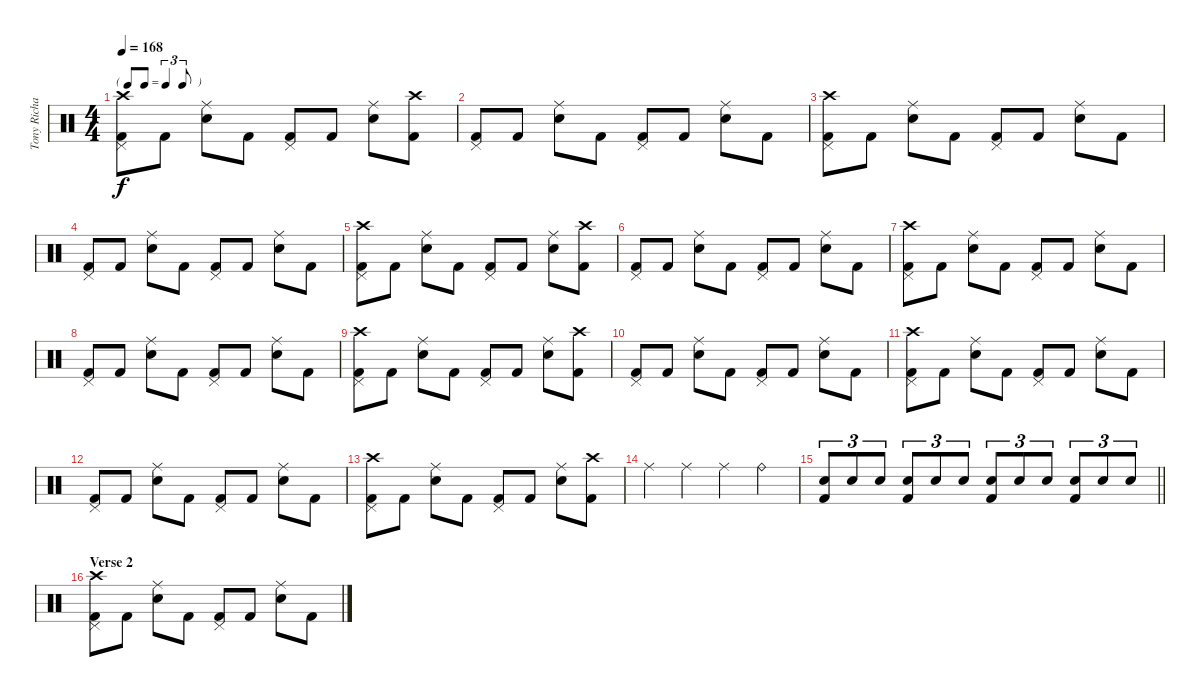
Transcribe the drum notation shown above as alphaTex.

\track ("Tony Richards (drums)" "Tony Richa") {instrument percussion}
\staff {score}
\articulation defaults
\ts (4 4)
\tf triplet8th
\tempo 168
\clef neutral
\ks c
("Crash high (hit)" "Pedal Hi-Hat (hit)" "Kick (hit) 2").8{dy f} "Kick (hit) 2".8 ("Ride (middle)" "Snare (hit) 2").8 "Kick (hit) 2".8 ("Pedal Hi-Hat (hit)" "Kick (hit) 2").8 "Kick (hit) 2".8 ("Ride (middle)" "Snare (hit) 2").8 ("Crash high (hit)" "Kick (hit) 2").8 |
("Pedal Hi-Hat (hit)" "Kick (hit) 2").8 "Kick (hit) 2".8 ("Ride (middle)" "Snare (hit) 2").8 "Kick (hit) 2".8 ("Pedal Hi-Hat (hit)" "Kick (hit) 2").8 "Kick (hit) 2".8 ("Ride (middle)" "Snare (hit) 2").8 "Kick (hit) 2".8 |
("Crash high (hit)" "Pedal Hi-Hat (hit)" "Kick (hit) 2").8 "Kick (hit) 2".8 ("Ride (middle)" "Snare (hit) 2").8 "Kick (hit) 2".8 ("Pedal Hi-Hat (hit)" "Kick (hit) 2").8 "Kick (hit) 2".8 ("Ride (middle)" "Snare (hit) 2").8 "Kick (hit) 2".8 |
("Pedal Hi-Hat (hit)" "Kick (hit) 2").8 "Kick (hit) 2".8 ("Ride (middle)" "Snare (hit) 2").8 "Kick (hit) 2".8 ("Pedal Hi-Hat (hit)" "Kick (hit) 2").8 "Kick (hit) 2".8 ("Ride (middle)" "Snare (hit) 2").8 "Kick (hit) 2".8 |
("Crash high (hit)" "Pedal Hi-Hat (hit)" "Kick (hit) 2").8 "Kick (hit) 2".8 ("Ride (middle)" "Snare (hit) 2").8 "Kick (hit) 2".8 ("Pedal Hi-Hat (hit)" "Kick (hit) 2").8 "Kick (hit) 2".8 ("Ride (middle)" "Snare (hit) 2").8 ("Crash high (hit)" "Kick (hit) 2").8 |
("Pedal Hi-Hat (hit)" "Kick (hit) 2").8 "Kick (hit) 2".8 ("Ride (middle)" "Snare (hit) 2").8 "Kick (hit) 2".8 ("Pedal Hi-Hat (hit)" "Kick (hit) 2").8 "Kick (hit) 2".8 ("Ride (middle)" "Snare (hit) 2").8 "Kick (hit) 2".8 |
("Crash high (hit)" "Pedal Hi-Hat (hit)" "Kick (hit) 2").8 "Kick (hit) 2".8 ("Ride (middle)" "Snare (hit) 2").8 "Kick (hit) 2".8 ("Pedal Hi-Hat (hit)" "Kick (hit) 2").8 "Kick (hit) 2".8 ("Ride (middle)" "Snare (hit) 2").8 "Kick (hit) 2".8 |
("Pedal Hi-Hat (hit)" "Kick (hit) 2").8 "Kick (hit) 2".8 ("Ride (middle)" "Snare (hit) 2").8 "Kick (hit) 2".8 ("Pedal Hi-Hat (hit)" "Kick (hit) 2").8 "Kick (hit) 2".8 ("Ride (middle)" "Snare (hit) 2").8 "Kick (hit) 2".8 |
("Crash high (hit)" "Pedal Hi-Hat (hit)" "Kick (hit) 2").8 "Kick (hit) 2".8 ("Ride (middle)" "Snare (hit) 2").8 "Kick (hit) 2".8 ("Pedal Hi-Hat (hit)" "Kick (hit) 2").8 "Kick (hit) 2".8 ("Ride (middle)" "Snare (hit) 2").8 ("Crash high (hit)" "Kick (hit) 2").8 |
("Pedal Hi-Hat (hit)" "Kick (hit) 2").8 "Kick (hit) 2".8 ("Ride (middle)" "Snare (hit) 2").8 "Kick (hit) 2".8 ("Pedal Hi-Hat (hit)" "Kick (hit) 2").8 "Kick (hit) 2".8 ("Ride (middle)" "Snare (hit) 2").8 "Kick (hit) 2".8 |
("Crash high (hit)" "Pedal Hi-Hat (hit)" "Kick (hit) 2").8 "Kick (hit) 2".8 ("Ride (middle)" "Snare (hit) 2").8 "Kick (hit) 2".8 ("Pedal Hi-Hat (hit)" "Kick (hit) 2").8 "Kick (hit) 2".8 ("Ride (middle)" "Snare (hit) 2").8 "Kick (hit) 2".8 |
("Pedal Hi-Hat (hit)" "Kick (hit) 2").8 "Kick (hit) 2".8 ("Ride (middle)" "Snare (hit) 2").8 "Kick (hit) 2".8 ("Pedal Hi-Hat (hit)" "Kick (hit) 2").8 "Kick (hit) 2".8 ("Ride (middle)" "Snare (hit) 2").8 "Kick (hit) 2".8 |
("Crash high (hit)" "Pedal Hi-Hat (hit)" "Kick (hit) 2").8 "Kick (hit) 2".8 ("Ride (middle)" "Snare (hit) 2").8 "Kick (hit) 2".8 ("Pedal Hi-Hat (hit)" "Kick (hit) 2").8 "Kick (hit) 2".8 ("Ride (middle)" "Snare (hit) 2").8 ("Crash high (hit)" "Kick (hit) 2").8 |
"Ride (middle)".4 "Ride (middle)".4 "Ride (middle)".4 "Ride (bell)".4 |
\barLineRight lightlight
("Snare (hit) 2" "Kick (hit) 2").8{tu (3 2)} "Snare (hit) 2".8{tu (3 2)} "Snare (hit) 2".8{tu (3 2)} ("Snare (hit) 2" "Kick (hit) 2").8{tu (3 2)} "Snare (hit) 2".8{tu (3 2)} "Snare (hit) 2".8{tu (3 2)} ("Snare (hit) 2" "Kick (hit) 2").8{tu (3 2)} "Snare (hit) 2".8{tu (3 2)} "Snare (hit) 2".8{tu (3 2)} ("Snare (hit) 2" "Kick (hit) 2").8{tu (3 2)} "Snare (hit) 2".8{tu (3 2)} "Snare (hit) 2".8{tu (3 2)} |
\section ("" "Verse 2")
("Crash high (hit)" "Pedal Hi-Hat (hit)" "Kick (hit) 2").8 "Kick (hit) 2".8 ("Ride (middle)" "Snare (hit) 2").8 "Kick (hit) 2".8 ("Pedal Hi-Hat (hit)" "Kick (hit) 2").8 "Kick (hit) 2".8 ("Ride (middle)" "Snare (hit) 2").8 "Kick (hit) 2".8
